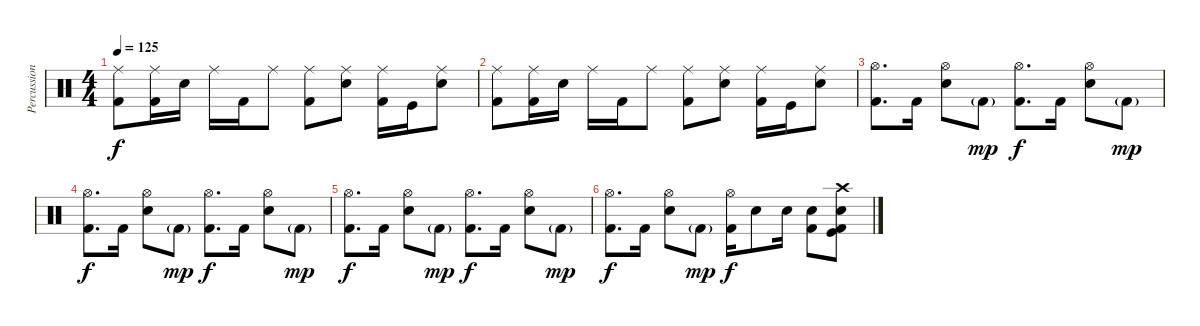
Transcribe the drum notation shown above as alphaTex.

\track ("Percussion" "Percussion") {instrument percussion}
\staff {score}
\articulation defaults
\ts (4 4)
\tempo 125
\clef neutral
\ks c
("Ride (middle)" "Kick (hit) 2").8{dy f} ("Ride (middle)" "Kick (hit) 2").16 "Electric Snare (hit)".16 "Ride (middle)".16 "Kick (hit) 2".16 "Ride (middle)".8 ("Ride (middle)" "Kick (hit) 2").8 ("Ride (middle)" "Electric Snare (hit)").8 ("Ride (middle)" "Kick (hit) 2").16 "Kick (hit)".16 ("Ride (middle)" "Electric Snare (hit)").8 |
("Ride (middle)" "Kick (hit) 2").8 ("Ride (middle)" "Kick (hit) 2").16 "Electric Snare (hit)".16 "Ride (middle)".16 "Kick (hit) 2".16 "Ride (middle)".8 ("Ride (middle)" "Kick (hit) 2").8 ("Ride (middle)" "Electric Snare (hit)").8 ("Ride (middle)" "Kick (hit) 2").16 "Kick (hit)".16 ("Ride (middle)" "Electric Snare (hit)").8 |
("Hi-Hat (open)" "Kick (hit) 2").8{d} "Kick (hit) 2".16 ("Hi-Hat (open)" "Electric Snare (hit)").8 "Kick (hit) 2"{g}.8{dy mp} ("Hi-Hat (open)" "Kick (hit) 2").8{d dy f} "Kick (hit) 2".16 ("Hi-Hat (open)" "Electric Snare (hit)").8 "Kick (hit) 2"{g}.8{dy mp} |
("Hi-Hat (open)" "Kick (hit) 2").8{d dy f} "Kick (hit) 2".16 ("Hi-Hat (open)" "Electric Snare (hit)").8 "Kick (hit) 2"{g}.8{dy mp} ("Hi-Hat (open)" "Kick (hit) 2").8{d dy f} "Kick (hit) 2".16 ("Hi-Hat (open)" "Electric Snare (hit)").8 "Kick (hit) 2"{g}.8{dy mp} |
("Hi-Hat (open)" "Kick (hit) 2").8{d dy f} "Kick (hit) 2".16 ("Hi-Hat (open)" "Electric Snare (hit)").8 "Kick (hit) 2"{g}.8{dy mp} ("Hi-Hat (open)" "Kick (hit) 2").8{d dy f} "Kick (hit) 2".16 ("Hi-Hat (open)" "Electric Snare (hit)").8 "Kick (hit) 2"{g}.8{dy mp} |
("Hi-Hat (open)" "Kick (hit) 2").8{d dy f} "Kick (hit) 2".16 ("Hi-Hat (open)" "Electric Snare (hit)").8 "Kick (hit) 2"{g}.8{dy mp} ("Hi-Hat (open)" "Kick (hit) 2").16{dy f} "Electric Snare (hit)".8 "Electric Snare (hit)".16 ("Electric Snare (hit)" "Kick (hit) 2").8 ("Crash high (hit)" "Electric Snare (hit)" "Kick (hit)" "Kick (hit) 2").8
